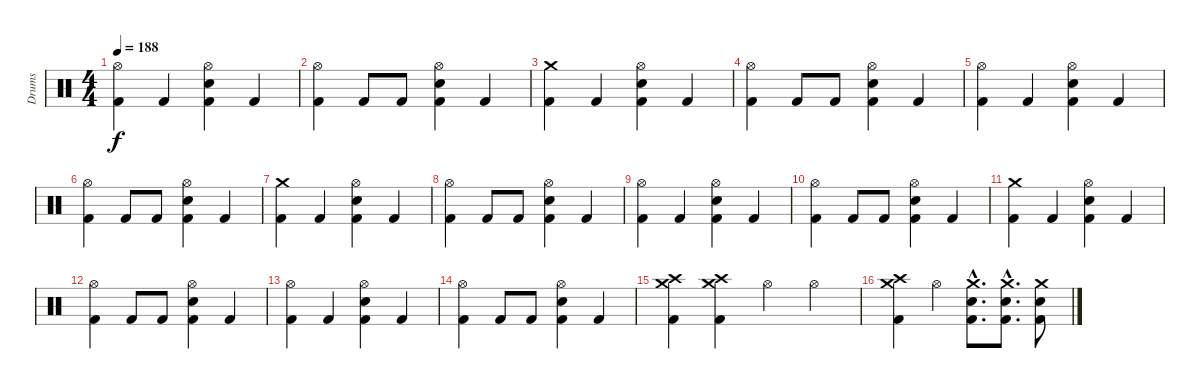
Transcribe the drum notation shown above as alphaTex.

\track ("Drums" "Drums") {instrument percussion}
\staff {score}
\articulation defaults
\ts (4 4)
\tempo 188
\clef neutral
\ks c
("Hi-Hat (open)" "Kick (hit) 2").4{dy f} "Kick (hit) 2".4 ("Hi-Hat (open)" "Snare (hit) 2" "Kick (hit) 2").4 "Kick (hit) 2".4 |
("Hi-Hat (open)" "Kick (hit) 2").4 "Kick (hit) 2".8 "Kick (hit) 2".8 ("Hi-Hat (open)" "Snare (hit) 2" "Kick (hit) 2").4 "Kick (hit) 2".4 |
("Crash medium (hit)" "Kick (hit) 2").4 "Kick (hit) 2".4 ("Hi-Hat (open)" "Snare (hit) 2" "Kick (hit) 2").4 "Kick (hit) 2".4 |
("Hi-Hat (open)" "Kick (hit) 2").4 "Kick (hit) 2".8 "Kick (hit) 2".8 ("Hi-Hat (open)" "Snare (hit) 2" "Kick (hit) 2").4 "Kick (hit) 2".4 |
("Hi-Hat (open)" "Kick (hit) 2").4 "Kick (hit) 2".4 ("Hi-Hat (open)" "Snare (hit) 2" "Kick (hit) 2").4 "Kick (hit) 2".4 |
("Hi-Hat (open)" "Kick (hit) 2").4 "Kick (hit) 2".8 "Kick (hit) 2".8 ("Hi-Hat (open)" "Snare (hit) 2" "Kick (hit) 2").4 "Kick (hit) 2".4 |
("Crash medium (hit)" "Kick (hit) 2").4 "Kick (hit) 2".4 ("Hi-Hat (open)" "Snare (hit) 2" "Kick (hit) 2").4 "Kick (hit) 2".4 |
("Hi-Hat (open)" "Kick (hit) 2").4 "Kick (hit) 2".8 "Kick (hit) 2".8 ("Hi-Hat (open)" "Snare (hit) 2" "Kick (hit) 2").4 "Kick (hit) 2".4 |
("Hi-Hat (open)" "Kick (hit) 2").4 "Kick (hit) 2".4 ("Hi-Hat (open)" "Snare (hit) 2" "Kick (hit) 2").4 "Kick (hit) 2".4 |
("Hi-Hat (open)" "Kick (hit) 2").4 "Kick (hit) 2".8 "Kick (hit) 2".8 ("Hi-Hat (open)" "Snare (hit) 2" "Kick (hit) 2").4 "Kick (hit) 2".4 |
("Crash medium (hit)" "Kick (hit) 2").4 "Kick (hit) 2".4 ("Hi-Hat (open)" "Snare (hit) 2" "Kick (hit) 2").4 "Kick (hit) 2".4 |
("Hi-Hat (open)" "Kick (hit) 2").4 "Kick (hit) 2".8 "Kick (hit) 2".8 ("Hi-Hat (open)" "Snare (hit) 2" "Kick (hit) 2").4 "Kick (hit) 2".4 |
("Hi-Hat (open)" "Kick (hit) 2").4 "Kick (hit) 2".4 ("Hi-Hat (open)" "Snare (hit) 2" "Kick (hit) 2").4 "Kick (hit) 2".4 |
("Hi-Hat (open)" "Kick (hit) 2").4 "Kick (hit) 2".8 "Kick (hit) 2".8 ("Hi-Hat (open)" "Snare (hit) 2" "Kick (hit) 2").4 "Kick (hit) 2".4 |
("Crash medium (hit)" "Crash high (hit)" "Kick (hit) 2").4 ("Crash medium (hit)" "Crash high (hit)" "Kick (hit) 2").4 "Hi-Hat (open)".4 "Hi-Hat (open)".4 |
("Crash high (hit)" "Crash medium (hit)" "Kick (hit) 2").4 "Hi-Hat (open)".4 ("Crash medium (hit)"{hac} "Snare (hit) 2"{hac} "Kick (hit) 2"{hac}).8{d} ("Crash medium (hit)"{hac} "Snare (hit) 2"{hac} "Kick (hit) 2"{hac}).8{d} ("Crash medium (hit)" "Snare (hit) 2" "Kick (hit) 2").8
